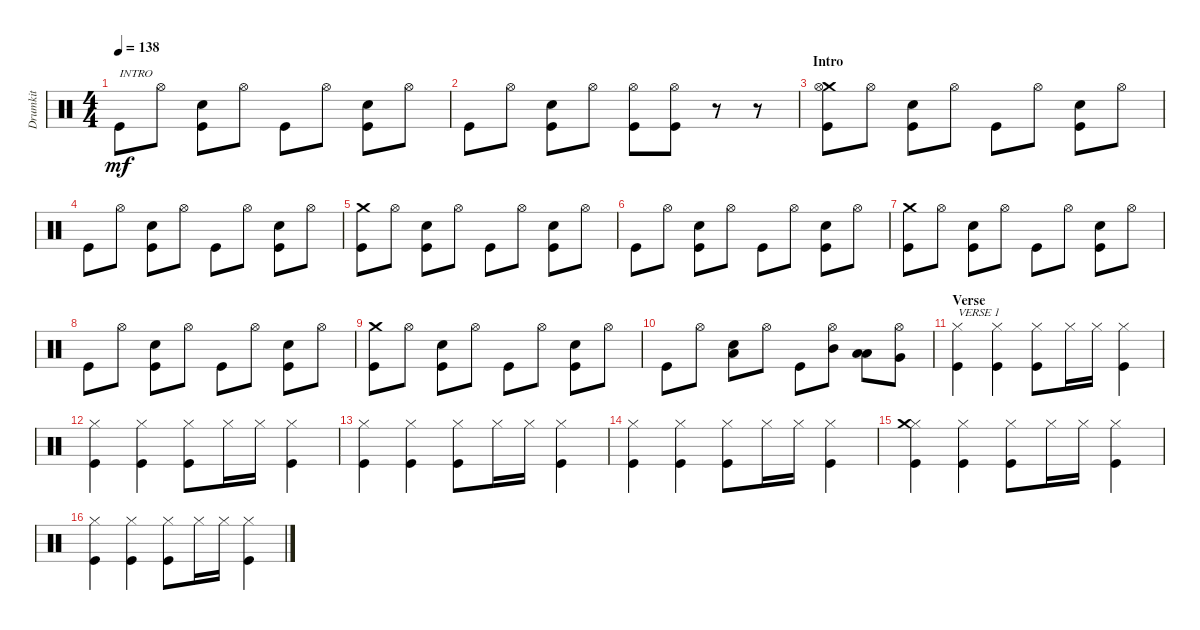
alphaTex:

\track ("Drumkit" "Drumkit") {instrument percussion}
\staff {score}
\articulation defaults
\ts (4 4)
\tempo 138
\clef neutral
\ks c "Kick (hit)".8{txt "INTRO" dy mf} "Hi-Hat (open)".8
("Snare (hit) 2" "Kick (hit)").8 "Hi-Hat (open)".8 "Kick (hit)".8 "Hi-Hat (open)".8 ("Snare (hit) 2" "Kick (hit)").8 "Hi-Hat (open)".8 |
"Kick (hit)".8 "Hi-Hat (open)".8 ("Snare (hit) 2" "Kick (hit)").8 "Hi-Hat (open)".8 ("Kick (hit)" "Hi-Hat (open)").8 ("Kick (hit)" "Hi-Hat (open)").8 r.8 r.8 |
\section ("" "Intro")
("Crash medium (hit)" "Hi-Hat (open)" "Kick (hit)").8 "Hi-Hat (open)".8 ("Snare (hit) 2" "Kick (hit)").8 "Hi-Hat (open)".8 "Kick (hit)".8 "Hi-Hat (open)".8 ("Snare (hit) 2" "Kick (hit)").8 "Hi-Hat (open)".8 |
"Kick (hit)".8 "Hi-Hat (open)".8 ("Snare (hit) 2" "Kick (hit)").8 "Hi-Hat (open)".8 "Kick (hit)".8 "Hi-Hat (open)".8 ("Snare (hit) 2" "Kick (hit)").8 "Hi-Hat (open)".8 |
("Kick (hit)" "Crash medium (hit)").8 "Hi-Hat (open)".8 ("Snare (hit) 2" "Kick (hit)").8 "Hi-Hat (open)".8 "Kick (hit)".8 "Hi-Hat (open)".8 ("Snare (hit) 2" "Kick (hit)").8 "Hi-Hat (open)".8 |
"Kick (hit)".8 "Hi-Hat (open)".8 ("Snare (hit) 2" "Kick (hit)").8 "Hi-Hat (open)".8 "Kick (hit)".8 "Hi-Hat (open)".8 ("Snare (hit) 2" "Kick (hit)").8 "Hi-Hat (open)".8 |
("Kick (hit)" "Crash medium (hit)").8 "Hi-Hat (open)".8 ("Snare (hit) 2" "Kick (hit)").8 "Hi-Hat (open)".8 "Kick (hit)".8 "Hi-Hat (open)".8 ("Snare (hit) 2" "Kick (hit)").8 "Hi-Hat (open)".8 |
"Kick (hit)".8 "Hi-Hat (open)".8 ("Snare (hit) 2" "Kick (hit)").8 "Hi-Hat (open)".8 "Kick (hit)".8 "Hi-Hat (open)".8 ("Snare (hit) 2" "Kick (hit)").8 "Hi-Hat (open)".8 |
("Kick (hit)" "Crash medium (hit)").8 "Hi-Hat (open)".8 ("Snare (hit) 2" "Kick (hit)").8 "Hi-Hat (open)".8 "Kick (hit)".8 "Hi-Hat (open)".8 ("Snare (hit) 2" "Kick (hit)").8 "Hi-Hat (open)".8 |
"Kick (hit)".8 "Hi-Hat (open)".8 ("Snare (hit) 2" "Low Floor Tom (hit)").8 "Hi-Hat (open)".8 "Kick (hit)".8 ("Hi-Hat (open)" "Mid Tom (hit)").8 ("Low Tom (hit)" "Low Floor Tom (hit)").8 ("Hi-Hat (open)" "Very Low Tom (hit)").8 |
\section ("" "Verse")
("Hi-Hat (closed)" "Kick (hit)").4{txt "VERSE 1"} ("Hi-Hat (closed)" "Kick (hit)").4 ("Hi-Hat (closed)" "Kick (hit)").8 "Hi-Hat (closed)".16 "Hi-Hat (closed)".16 ("Hi-Hat (closed)" "Kick (hit)").4 |
("Hi-Hat (closed)" "Kick (hit)").4 ("Hi-Hat (closed)" "Kick (hit)").4 ("Hi-Hat (closed)" "Kick (hit)").8 "Hi-Hat (closed)".16 "Hi-Hat (closed)".16 ("Hi-Hat (closed)" "Kick (hit)").4 |
("Hi-Hat (closed)" "Kick (hit)").4 ("Hi-Hat (closed)" "Kick (hit)").4 ("Hi-Hat (closed)" "Kick (hit)").8 "Hi-Hat (closed)".16 "Hi-Hat (closed)".16 ("Hi-Hat (closed)" "Kick (hit)").4 |
("Hi-Hat (closed)" "Kick (hit)").4 ("Hi-Hat (closed)" "Kick (hit)").4 ("Hi-Hat (closed)" "Kick (hit)").8 "Hi-Hat (closed)".16 "Hi-Hat (closed)".16 ("Hi-Hat (closed)" "Kick (hit)").4 |
("Hi-Hat (closed)" "Kick (hit)" "Crash medium (hit)").4 ("Hi-Hat (closed)" "Kick (hit)").4 ("Hi-Hat (closed)" "Kick (hit)").8 "Hi-Hat (closed)".16 "Hi-Hat (closed)".16 ("Hi-Hat (closed)" "Kick (hit)").4 |
("Hi-Hat (closed)" "Kick (hit)").4 ("Hi-Hat (closed)" "Kick (hit)").4 ("Hi-Hat (closed)" "Kick (hit)").8 "Hi-Hat (closed)".16 "Hi-Hat (closed)".16 ("Hi-Hat (closed)" "Kick (hit)").4
